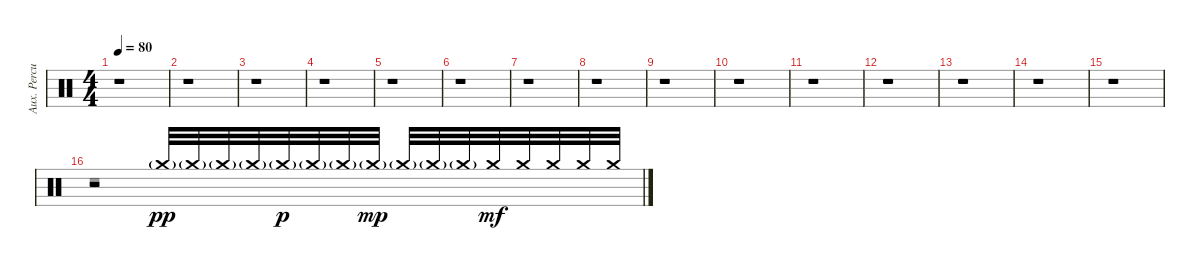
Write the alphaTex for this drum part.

\track ("Aux. Percussion" "Aux. Percu") {instrument percussion}
\staff {score}
\articulation defaults
\voice
\ts (4 4)
\tempo 80
\clef neutral
\ks c
r.1{dy mf} |
r.1 |
r.1 |
r.1 |
r.1 |
r.1 |
r.1 |
r.1 |
r.1 |
r.1 |
r.1 |
r.1 |
r.1 |
r.1 |
r.1 |
r.2 "Crash medium (hit)"{g}.32{dy pp} "Crash medium (hit)"{g}.32 "Crash medium (hit)"{g}.32 "Crash medium (hit)"{g}.32 "Crash medium (hit)"{g}.32{dy p} "Crash medium (hit)"{g}.32 "Crash medium (hit)"{g}.32 "Crash medium (hit)"{g}.32{dy mp} "Crash medium (hit)"{g}.32 "Crash medium (hit)"{g}.32 "Crash medium (hit)"{g}.32 "Crash medium (hit)".32{dy mf} "Crash medium (hit)".32 "Crash medium (hit)".32 "Crash medium (hit)".32 "Crash medium (hit)".32
\voice
\clef neutral
\ottava regular
\simile none
\ks c
|
|
|
|
|
|
|
|
|
|
|
|
|
|
|
r.1
